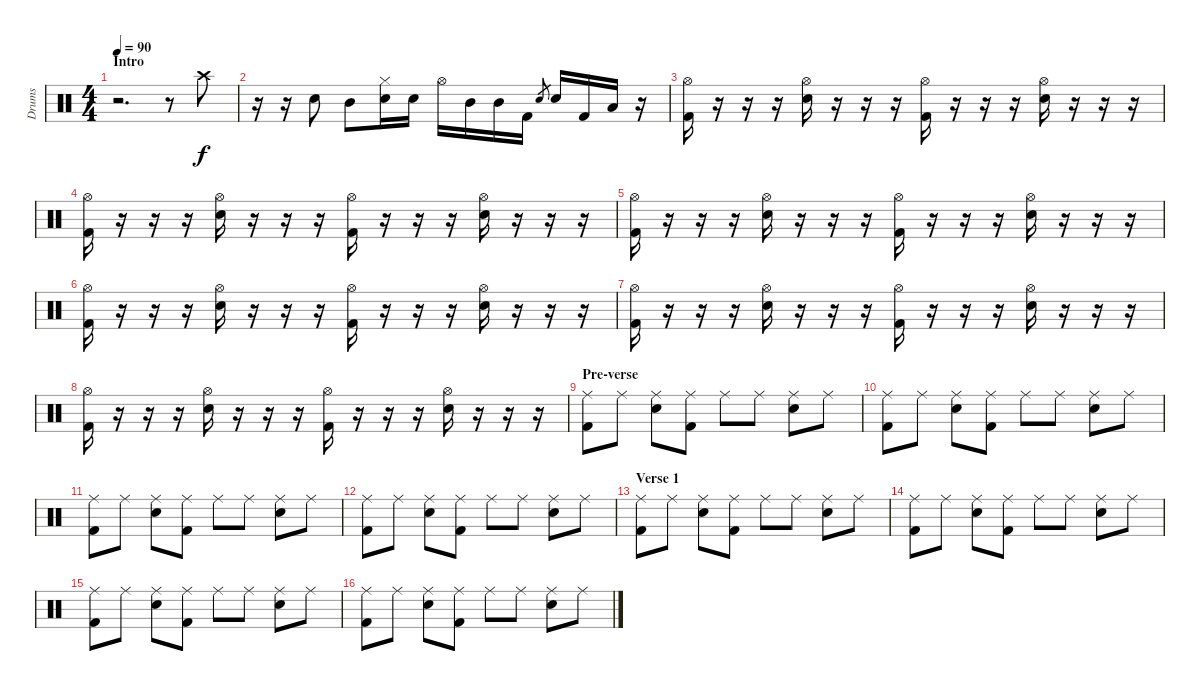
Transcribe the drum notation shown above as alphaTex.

\track ("Drums" "Drums") {instrument percussion}
\staff {score}
\articulation defaults
\ts (4 4)
\section ("" "Intro")
\tempo 90
\clef neutral
\ks c
r.2{d dy f} r.8 "Crash high (hit)".8 |
r.16 r.16 "Electric Snare (hit)".8 "Mid Tom (hit)".8 ("Hi-Hat (closed)" "Electric Snare (hit)").16 "Electric Snare (hit)".16 "Hi-Hat (open)".16 "Mid Tom (hit)".16 "Mid Tom (hit)".16 "Kick (hit) 2".16 "Electric Snare (hit)".8{gr} "Electric Snare (hit)".16 "Kick (hit) 2".16 "Low Tom (hit)".16 r.16 |
("Hi-Hat (open)" "Kick (hit) 2").16 r.16 r.16 r.16 ("Hi-Hat (open)" "Electric Snare (hit)").16 r.16 r.16 r.16 ("Hi-Hat (open)" "Kick (hit) 2").16 r.16 r.16 r.16 ("Hi-Hat (open)" "Electric Snare (hit)").16 r.16 r.16 r.16 |
("Hi-Hat (open)" "Kick (hit) 2").16 r.16 r.16 r.16 ("Hi-Hat (open)" "Electric Snare (hit)").16 r.16 r.16 r.16 ("Hi-Hat (open)" "Kick (hit) 2").16 r.16 r.16 r.16 ("Hi-Hat (open)" "Electric Snare (hit)").16 r.16 r.16 r.16 |
("Hi-Hat (open)" "Kick (hit) 2").16 r.16 r.16 r.16 ("Hi-Hat (open)" "Electric Snare (hit)").16 r.16 r.16 r.16 ("Hi-Hat (open)" "Kick (hit) 2").16 r.16 r.16 r.16 ("Hi-Hat (open)" "Electric Snare (hit)").16 r.16 r.16 r.16 |
("Hi-Hat (open)" "Kick (hit) 2").16 r.16 r.16 r.16 ("Hi-Hat (open)" "Electric Snare (hit)").16 r.16 r.16 r.16 ("Hi-Hat (open)" "Kick (hit) 2").16 r.16 r.16 r.16 ("Hi-Hat (open)" "Electric Snare (hit)").16 r.16 r.16 r.16 |
("Hi-Hat (open)" "Kick (hit) 2").16 r.16 r.16 r.16 ("Hi-Hat (open)" "Electric Snare (hit)").16 r.16 r.16 r.16 ("Hi-Hat (open)" "Kick (hit) 2").16 r.16 r.16 r.16 ("Hi-Hat (open)" "Electric Snare (hit)").16 r.16 r.16 r.16 |
("Hi-Hat (open)" "Kick (hit) 2").16 r.16 r.16 r.16 ("Hi-Hat (open)" "Electric Snare (hit)").16 r.16 r.16 r.16 ("Hi-Hat (open)" "Kick (hit) 2").16 r.16 r.16 r.16 ("Hi-Hat (open)" "Electric Snare (hit)").16 r.16 r.16 r.16 |
\section ("" "Pre-verse")
("Ride (middle)" "Kick (hit) 2").8 "Ride (middle)".8 ("Ride (middle)" "Electric Snare (hit)").8 ("Ride (middle)" "Kick (hit) 2").8 "Ride (middle)".8 "Ride (middle)".8 ("Ride (middle)" "Electric Snare (hit)").8 "Ride (middle)".8 |
("Ride (middle)" "Kick (hit) 2").8 "Ride (middle)".8 ("Ride (middle)" "Electric Snare (hit)").8 ("Ride (middle)" "Kick (hit) 2").8 "Ride (middle)".8 "Ride (middle)".8 ("Ride (middle)" "Electric Snare (hit)").8 "Ride (middle)".8 |
("Ride (middle)" "Kick (hit) 2").8 "Ride (middle)".8 ("Ride (middle)" "Electric Snare (hit)").8 ("Ride (middle)" "Kick (hit) 2").8 "Ride (middle)".8 "Ride (middle)".8 ("Ride (middle)" "Electric Snare (hit)").8 "Ride (middle)".8 |
("Ride (middle)" "Kick (hit) 2").8 "Ride (middle)".8 ("Ride (middle)" "Electric Snare (hit)").8 ("Ride (middle)" "Kick (hit) 2").8 "Ride (middle)".8 "Ride (middle)".8 ("Ride (middle)" "Electric Snare (hit)").8 "Ride (middle)".8 |
\section ("" "Verse 1")
("Ride (middle)" "Kick (hit) 2").8 "Ride (middle)".8 ("Ride (middle)" "Electric Snare (hit)").8 ("Ride (middle)" "Kick (hit) 2").8 "Ride (middle)".8 "Ride (middle)".8 ("Ride (middle)" "Electric Snare (hit)").8 "Ride (middle)".8 |
("Ride (middle)" "Kick (hit) 2").8 "Ride (middle)".8 ("Ride (middle)" "Electric Snare (hit)").8 ("Ride (middle)" "Kick (hit) 2").8 "Ride (middle)".8 "Ride (middle)".8 ("Ride (middle)" "Electric Snare (hit)").8 "Ride (middle)".8 |
("Ride (middle)" "Kick (hit) 2").8 "Ride (middle)".8 ("Ride (middle)" "Electric Snare (hit)").8 ("Ride (middle)" "Kick (hit) 2").8 "Ride (middle)".8 "Ride (middle)".8 ("Ride (middle)" "Electric Snare (hit)").8 "Ride (middle)".8 |
("Ride (middle)" "Kick (hit) 2").8 "Ride (middle)".8 ("Ride (middle)" "Electric Snare (hit)").8 ("Ride (middle)" "Kick (hit) 2").8 "Ride (middle)".8 "Ride (middle)".8 ("Ride (middle)" "Electric Snare (hit)").8 "Ride (middle)".8
